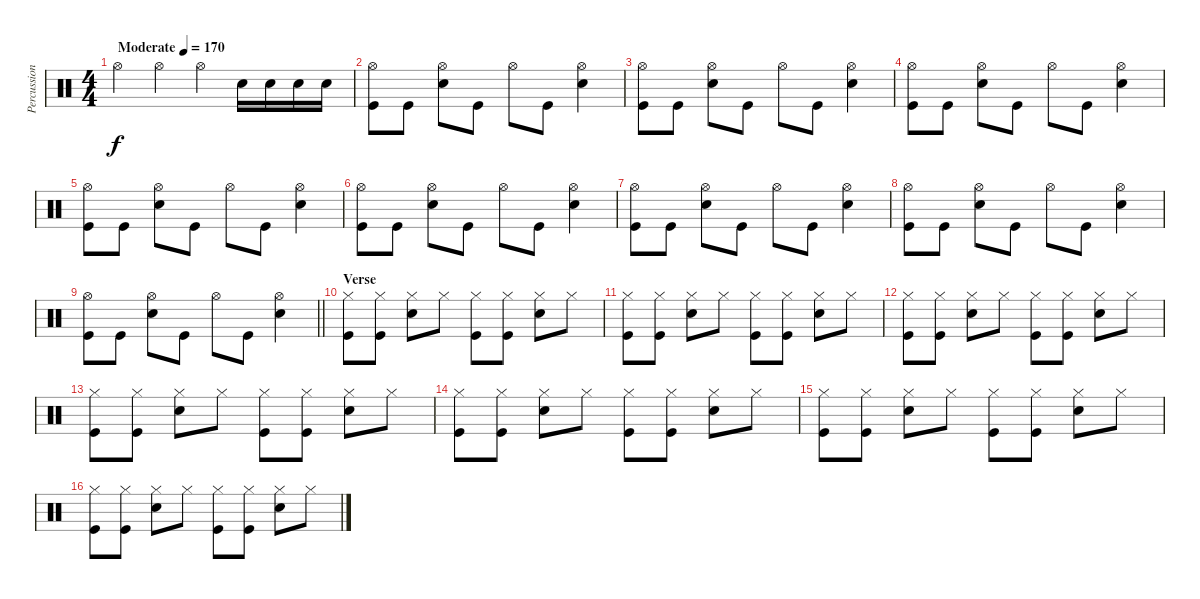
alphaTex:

\track ("Percussion" "Percussion") {instrument percussion}
\staff {score}
\articulation defaults
\ts (4 4)
\tempo (170 "Moderate")
\clef neutral
\ks c "Hi-Hat (open)".4{dy f} "Hi-Hat (open)".4 "Hi-Hat (open)".4 "Snare (hit) 2".16 "Snare (hit) 2".16 "Snare (hit) 2".16 "Snare (hit) 2".16
|
("Hi-Hat (open)" "Kick (hit)").8 "Kick (hit)".8 ("Hi-Hat (open)" "Snare (hit) 2").8 "Kick (hit)".8 "Hi-Hat (open)".8 "Kick (hit)".8 ("Hi-Hat (open)" "Snare (hit) 2").4 |
("Hi-Hat (open)" "Kick (hit)").8 "Kick (hit)".8 ("Hi-Hat (open)" "Snare (hit) 2").8 "Kick (hit)".8 "Hi-Hat (open)".8 "Kick (hit)".8 ("Hi-Hat (open)" "Snare (hit) 2").4 |
("Hi-Hat (open)" "Kick (hit)").8 "Kick (hit)".8 ("Hi-Hat (open)" "Snare (hit) 2").8 "Kick (hit)".8 "Hi-Hat (open)".8 "Kick (hit)".8 ("Hi-Hat (open)" "Snare (hit) 2").4 |
("Hi-Hat (open)" "Kick (hit)").8 "Kick (hit)".8 ("Hi-Hat (open)" "Snare (hit) 2").8 "Kick (hit)".8 "Hi-Hat (open)".8 "Kick (hit)".8 ("Hi-Hat (open)" "Snare (hit) 2").4 |
("Hi-Hat (open)" "Kick (hit)").8 "Kick (hit)".8 ("Hi-Hat (open)" "Snare (hit) 2").8 "Kick (hit)".8 "Hi-Hat (open)".8 "Kick (hit)".8 ("Hi-Hat (open)" "Snare (hit) 2").4 |
("Hi-Hat (open)" "Kick (hit)").8 "Kick (hit)".8 ("Hi-Hat (open)" "Snare (hit) 2").8 "Kick (hit)".8 "Hi-Hat (open)".8 "Kick (hit)".8 ("Hi-Hat (open)" "Snare (hit) 2").4 |
("Hi-Hat (open)" "Kick (hit)").8 "Kick (hit)".8 ("Hi-Hat (open)" "Snare (hit) 2").8 "Kick (hit)".8 "Hi-Hat (open)".8 "Kick (hit)".8 ("Hi-Hat (open)" "Snare (hit) 2").4 |
\barLineRight lightlight
("Hi-Hat (open)" "Kick (hit)").8 "Kick (hit)".8 ("Hi-Hat (open)" "Snare (hit) 2").8 "Kick (hit)".8 "Hi-Hat (open)".8 "Kick (hit)".8 ("Hi-Hat (open)" "Snare (hit) 2").4 |
\section ("" "Verse")
("Hi-Hat (closed)" "Kick (hit)").8 ("Hi-Hat (closed)" "Kick (hit)").8 ("Hi-Hat (closed)" "Snare (hit) 2").8 "Hi-Hat (closed)".8 ("Hi-Hat (closed)" "Kick (hit)").8 ("Hi-Hat (closed)" "Kick (hit)").8 ("Hi-Hat (closed)" "Snare (hit) 2").8 "Hi-Hat (closed)".8 |
("Hi-Hat (closed)" "Kick (hit)").8 ("Hi-Hat (closed)" "Kick (hit)").8 ("Hi-Hat (closed)" "Snare (hit) 2").8 "Hi-Hat (closed)".8 ("Hi-Hat (closed)" "Kick (hit)").8 ("Hi-Hat (closed)" "Kick (hit)").8 ("Hi-Hat (closed)" "Snare (hit) 2").8 "Hi-Hat (closed)".8 |
("Hi-Hat (closed)" "Kick (hit)").8 ("Hi-Hat (closed)" "Kick (hit)").8 ("Hi-Hat (closed)" "Snare (hit) 2").8 "Hi-Hat (closed)".8 ("Hi-Hat (closed)" "Kick (hit)").8 ("Hi-Hat (closed)" "Kick (hit)").8 ("Hi-Hat (closed)" "Snare (hit) 2").8 "Hi-Hat (closed)".8 |
("Hi-Hat (closed)" "Kick (hit)").8 ("Hi-Hat (closed)" "Kick (hit)").8 ("Hi-Hat (closed)" "Snare (hit) 2").8 "Hi-Hat (closed)".8 ("Hi-Hat (closed)" "Kick (hit)").8 ("Hi-Hat (closed)" "Kick (hit)").8 ("Hi-Hat (closed)" "Snare (hit) 2").8 "Hi-Hat (closed)".8 |
("Hi-Hat (closed)" "Kick (hit)").8 ("Hi-Hat (closed)" "Kick (hit)").8 ("Hi-Hat (closed)" "Snare (hit) 2").8 "Hi-Hat (closed)".8 ("Hi-Hat (closed)" "Kick (hit)").8 ("Hi-Hat (closed)" "Kick (hit)").8 ("Hi-Hat (closed)" "Snare (hit) 2").8 "Hi-Hat (closed)".8 |
("Hi-Hat (closed)" "Kick (hit)").8 ("Hi-Hat (closed)" "Kick (hit)").8 ("Hi-Hat (closed)" "Snare (hit) 2").8 "Hi-Hat (closed)".8 ("Hi-Hat (closed)" "Kick (hit)").8 ("Hi-Hat (closed)" "Kick (hit)").8 ("Hi-Hat (closed)" "Snare (hit) 2").8 "Hi-Hat (closed)".8 |
("Hi-Hat (closed)" "Kick (hit)").8 ("Hi-Hat (closed)" "Kick (hit)").8 ("Hi-Hat (closed)" "Snare (hit) 2").8 "Hi-Hat (closed)".8 ("Hi-Hat (closed)" "Kick (hit)").8 ("Hi-Hat (closed)" "Kick (hit)").8 ("Hi-Hat (closed)" "Snare (hit) 2").8 "Hi-Hat (closed)".8
